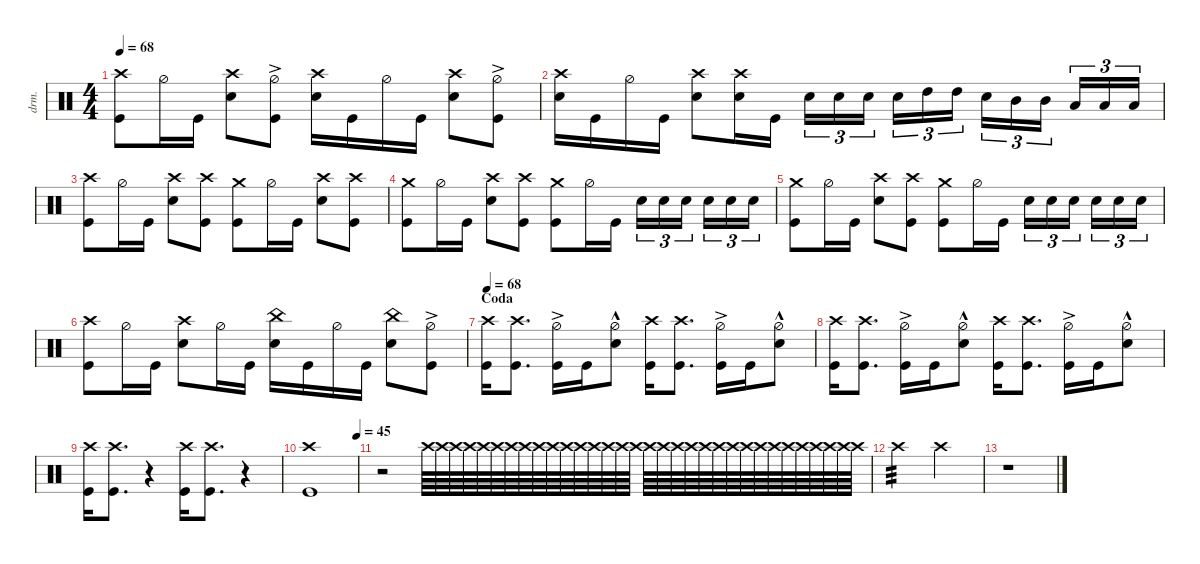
\defaultSystemsLayout 4
\hideDynamics
\bracketExtendMode nobrackets
\otherSystemsTrackNameOrientation horizontal
\track ("Drums" "drm.") {defaultSystemsLayout 4 instrument percussion}
\staff
\articulation defaults
\ts (4 4)
\tempo 68
\clef neutral
\ks c
("Crash high (hit)" "Kick (hit)").8{dy f} "Hi-Hat (half)".16 "Kick (hit)".16 ("Snare (hit) 2" "Crash high (hit)").8 ("Hi-Hat (half)"{ac} "Kick (hit)").8 ("Snare (hit) 2" "Crash high (hit)").16 "Kick (hit)".16 "Hi-Hat (half)".16 "Kick (hit)".16 ("Snare (hit) 2" "Crash high (hit)").8 ("Hi-Hat (half)"{ac} "Kick (hit)").8 |
("Snare (hit) 2" "Crash high (hit)").16 "Kick (hit)".16 "Hi-Hat (half)".16 "Kick (hit)".16 ("Snare (hit) 2" "Crash high (hit)").8 ("Snare (hit) 2" "Crash high (hit)").16 "Kick (hit)".16 "Snare (hit) 2".16{tu (3 2) dy mf} "Snare (hit) 2".16{tu (3 2) dy mp} "Snare (hit) 2".16{tu (3 2)} "Snare (hit) 2".16{tu (3 2) dy mf} "High Tom (hit)".16{tu (3 2) dy ff} "High Tom (hit)".16{tu (3 2)} "Snare (hit) 2".16{tu (3 2) dy mf} "Mid Tom (hit)".16{tu (3 2) dy ff} "Mid Tom (hit)".16{tu (3 2)} "Low Tom (hit)".16{tu (3 2)} "Low Tom (hit)".16{tu (3 2)} "Low Tom (hit)".16{tu (3 2)} |
("Crash high (hit)" "Kick (hit)").8{dy f} "Hi-Hat (half)".16 "Kick (hit)".16 ("Snare (hit) 2" "Crash high (hit)").8 ("Crash high (hit)" "Kick (hit)").8 ("Crash medium (hit)" "Kick (hit)").8 "Hi-Hat (half)".16 "Kick (hit)".16 ("Snare (hit) 2" "Crash high (hit)").8 ("Kick (hit)" "Crash high (hit)").8 |
("Crash medium (hit)" "Kick (hit)").8 "Hi-Hat (half)".16 "Kick (hit)".16 ("Snare (hit) 2" "Crash high (hit)").8 ("Crash high (hit)" "Kick (hit)").8 ("Crash medium (hit)" "Kick (hit)").8 "Hi-Hat (half)".16 "Kick (hit)".16 "Snare (hit) 2".16{tu (3 2)} "Snare (hit) 2".16{tu (3 2) dy mf} "Snare (hit) 2".16{tu (3 2)} "Snare (hit) 2".16{tu (3 2)} "Snare (hit) 2".16{tu (3 2) dy f} "Snare (hit) 2".16{tu (3 2)} |
("Crash medium (hit)" "Kick (hit)").8 "Hi-Hat (half)".16 "Kick (hit)".16 ("Snare (hit) 2" "Crash high (hit)").8 ("Crash high (hit)" "Kick (hit)").8 ("Crash medium (hit)" "Kick (hit)").8 "Hi-Hat (half)".16 "Kick (hit)".16 "Snare (hit) 2".16{tu (3 2)} "Snare (hit) 2".16{tu (3 2) dy mf} "Snare (hit) 2".16{tu (3 2)} "Snare (hit) 2".16{tu (3 2)} "Snare (hit) 2".16{tu (3 2) dy f} "Snare (hit) 2".16{tu (3 2)} |
("Crash high (hit)" "Kick (hit)").8 "Hi-Hat (half)".16 "Kick (hit)".16 ("Snare (hit) 2" "Crash high (hit)").8 "Hi-Hat (half)".16 "Kick (hit)".16 ("Snare (hit) 2" "China (hit)").16 "Kick (hit)".16 "Hi-Hat (half)".16 "Kick (hit)".16 ("Snare (hit) 2" "China (hit)").8 ("Hi-Hat (half)"{ac} "Kick (hit)").8 |
\section ("" "Coda")
\tempo 68
("Crash high (hit)" "Kick (hit)").16 ("Crash high (hit)" "Kick (hit)").8{d} ("Hi-Hat (half)"{ac} "Kick (hit)").16 "Kick (hit)".16 ("Hi-Hat (half)"{hac} "Snare (hit) 2").8 ("Crash high (hit)" "Kick (hit)").16 ("Crash high (hit)" "Kick (hit)").8{d} ("Hi-Hat (half)"{ac} "Kick (hit)").16 "Kick (hit)".16 ("Hi-Hat (half)"{hac} "Snare (hit) 2").8 |
("Crash high (hit)" "Kick (hit)").16 ("Crash high (hit)" "Kick (hit)").8{d} ("Hi-Hat (half)"{ac} "Kick (hit)").16 "Kick (hit)".16 ("Hi-Hat (half)"{hac} "Snare (hit) 2").8 ("Crash high (hit)" "Kick (hit)").16 ("Crash high (hit)" "Kick (hit)").8{d} ("Hi-Hat (half)"{ac} "Kick (hit)").16 "Kick (hit)".16 ("Hi-Hat (half)"{hac} "Snare (hit) 2").8 |
("Crash high (hit)" "Kick (hit)").16 ("Crash high (hit)" "Kick (hit)").8{d} r.4 ("Crash high (hit)" "Kick (hit)").16 ("Crash high (hit)" "Kick (hit)").8{d} r.4 |
\tempo (45 1)
("Crash high (hit)" "Kick (hit)").1 |
r.2 "Crash high (hit)".64{dy pp} "Crash high (hit)".64 "Crash high (hit)".64 "Crash high (hit)".64 "Crash high (hit)".64 "Crash high (hit)".64 "Crash high (hit)".64 "Crash high (hit)".64 "Crash high (hit)".64 "Crash high (hit)".64 "Crash high (hit)".64 "Crash high (hit)".64 "Crash high (hit)".64 "Crash high (hit)".64 "Crash high (hit)".64 "Crash high (hit)".64 "Crash high (hit)".64{dy p} "Crash high (hit)".64 "Crash high (hit)".64 "Crash high (hit)".64 "Crash high (hit)".64 "Crash high (hit)".64 "Crash high (hit)".64 "Crash high (hit)".64 "Crash high (hit)".64 "Crash high (hit)".64 "Crash high (hit)".64 "Crash high (hit)".64 "Crash high (hit)".64 "Crash high (hit)".64 "Crash high (hit)".64 "Crash high (hit)".64 |
"Crash high (hit)".2{tp 3} "Crash high (hit)".2{dy mp} |
r.1
